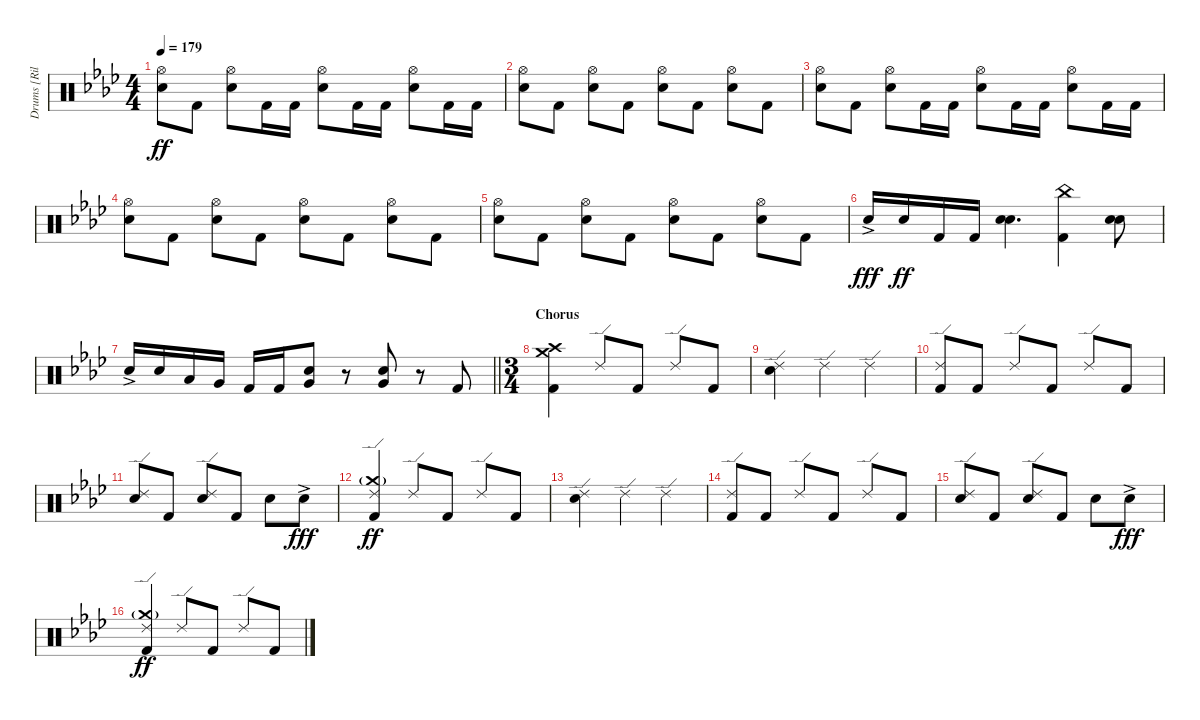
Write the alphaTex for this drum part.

\track ("Drums [Riley]" "Drums [Ril") {instrument percussion}
\staff {score}
\articulation defaults
\ts (4 4)
\tempo 179
\clef neutral
\ks ab
("Hi-Hat (open)" "Electric Snare (hit)").8{dy ff} "Kick (hit) 2".8 ("Hi-Hat (open)" "Electric Snare (hit)").8 "Kick (hit) 2".16 "Kick (hit) 2".16 ("Hi-Hat (open)" "Electric Snare (hit)").8 "Kick (hit) 2".16 "Kick (hit) 2".16 ("Hi-Hat (open)" "Electric Snare (hit)").8 "Kick (hit) 2".16 "Kick (hit) 2".16 |
("Hi-Hat (open)" "Electric Snare (hit)").8 "Kick (hit) 2".8 ("Hi-Hat (open)" "Electric Snare (hit)").8 "Kick (hit) 2".8 ("Hi-Hat (open)" "Electric Snare (hit)").8 "Kick (hit) 2".8 ("Hi-Hat (open)" "Electric Snare (hit)").8 "Kick (hit) 2".8 |
("Hi-Hat (open)" "Electric Snare (hit)").8 "Kick (hit) 2".8 ("Hi-Hat (open)" "Electric Snare (hit)").8 "Kick (hit) 2".16 "Kick (hit) 2".16 ("Hi-Hat (open)" "Electric Snare (hit)").8 "Kick (hit) 2".16 "Kick (hit) 2".16 ("Hi-Hat (open)" "Electric Snare (hit)").8 "Kick (hit) 2".16 "Kick (hit) 2".16 |
("Hi-Hat (open)" "Electric Snare (hit)").8 "Kick (hit) 2".8 ("Hi-Hat (open)" "Electric Snare (hit)").8 "Kick (hit) 2".8 ("Hi-Hat (open)" "Electric Snare (hit)").8 "Kick (hit) 2".8 ("Hi-Hat (open)" "Electric Snare (hit)").8 "Kick (hit) 2".8 |
("Hi-Hat (open)" "Electric Snare (hit)").8 "Kick (hit) 2".8 ("Hi-Hat (open)" "Electric Snare (hit)").8 "Kick (hit) 2".8 ("Hi-Hat (open)" "Electric Snare (hit)").8 "Kick (hit) 2".8 ("Hi-Hat (open)" "Electric Snare (hit)").8 "Kick (hit) 2".8 |
"Electric Snare (hit)"{ac}.16{dy fff} "Electric Snare (hit)".16{dy ff} "Kick (hit) 2".16 "Kick (hit) 2".16 ("Electric Snare (hit)" "Electric Snare (hit)").4{d bu 60} ("China (hit)" "Kick (hit) 2").4 ("Electric Snare (hit)" "Electric Snare (hit)").8{bu 60} |
\barLineRight lightlight "Electric Snare (hit)"{ac}.16 "Electric Snare (hit)".16 "Low Tom (hit)".16 "Very Low Tom (hit)".16 "Kick (hit) 2".16 "Kick (hit) 2".16
("Very Low Tom (hit)" "Electric Snare (hit)").8{bu 60} r.8 ("Very Low Tom (hit)" "Electric Snare (hit)").8{bu 60} r.8 "Kick (hit) 2".8 |
\ts (3 4)
\section ("" "Chorus")
("Crash medium (hit)" "Crash high (hit)" "Kick (hit) 2").4 "Ride (edge) 2".8 "Kick (hit) 2".8 "Ride (edge) 2".8 "Kick (hit) 2".8 |
("Ride (edge) 2" "Electric Snare (hit)").4 "Ride (edge) 2".4 "Ride (edge) 2".4 |
("Ride (edge) 2" "Kick (hit) 2").8 "Kick (hit) 2".8 "Ride (edge) 2".8 "Kick (hit) 2".8 "Ride (edge) 2".8 "Kick (hit) 2".8 |
("Ride (edge) 2" "Electric Snare (hit)").8 "Kick (hit) 2".8 ("Ride (edge) 2" "Electric Snare (hit)").8 "Kick (hit) 2".8 "Electric Snare (hit)".8 "Electric Snare (hit)"{ac}.8{dy fff} |
("Crash medium (hit)"{g} "Ride (edge) 2" "Kick (hit) 2").4{dy ff} "Ride (edge) 2".8 "Kick (hit) 2".8 "Ride (edge) 2".8 "Kick (hit) 2".8 |
("Ride (edge) 2" "Electric Snare (hit)").4 "Ride (edge) 2".4 "Ride (edge) 2".4 |
("Ride (edge) 2" "Kick (hit) 2").8 "Kick (hit) 2".8 "Ride (edge) 2".8 "Kick (hit) 2".8 "Ride (edge) 2".8 "Kick (hit) 2".8 |
("Ride (edge) 2" "Electric Snare (hit)").8 "Kick (hit) 2".8 ("Ride (edge) 2" "Electric Snare (hit)").8 "Kick (hit) 2".8 "Electric Snare (hit)".8 "Electric Snare (hit)"{ac}.8{dy fff} |
("Crash medium (hit)"{g} "Ride (edge) 2" "Kick (hit) 2").4{dy ff} "Ride (edge) 2".8 "Kick (hit) 2".8 "Ride (edge) 2".8 "Kick (hit) 2".8
